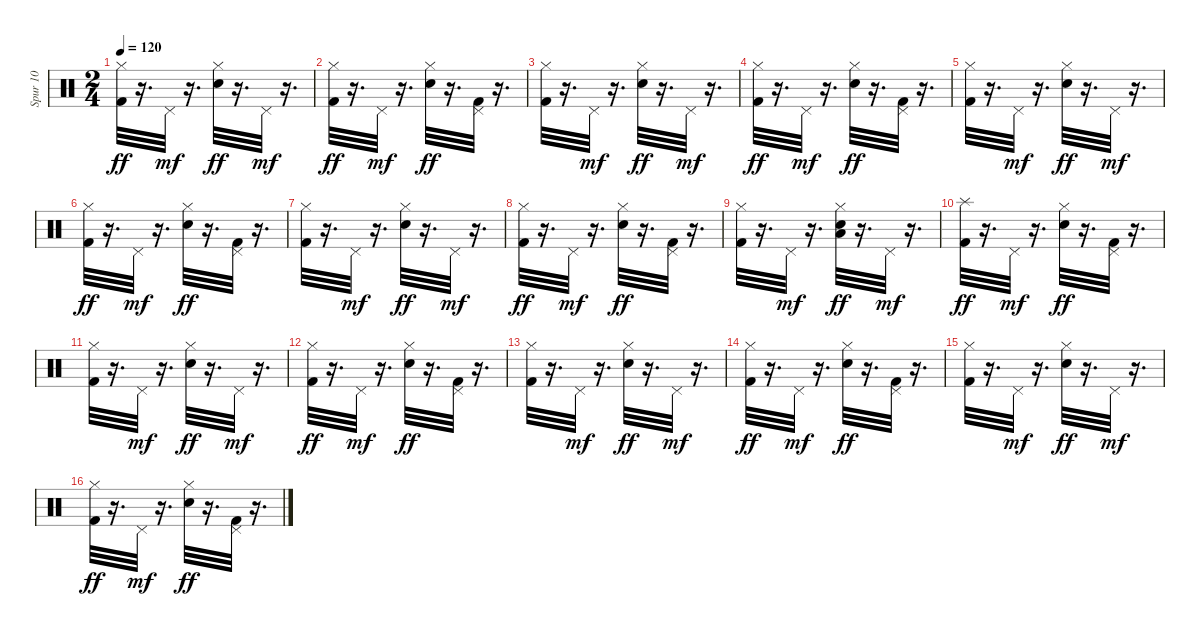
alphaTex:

\track ("Spur 10" "Spur 10") {instrument percussion}
\staff {score}
\articulation defaults
\ts (2 4)
\tempo 120
\clef neutral
\ks c
("Hi-Hat (closed)" "Kick (hit) 2").32{dy ff} r.16{d} "Pedal Hi-Hat (hit)".32{dy mf} r.16{d} ("Hi-Hat (closed)" "Snare (hit) 2").32{dy ff} r.16{d} "Pedal Hi-Hat (hit)".32{dy mf} r.16{d} |
("Hi-Hat (closed)" "Kick (hit) 2").32{dy ff} r.16{d} "Pedal Hi-Hat (hit)".32{dy mf} r.16{d} ("Hi-Hat (closed)" "Snare (hit) 2").32{dy ff} r.16{d} ("Pedal Hi-Hat (hit)" "Kick (hit) 2").32 r.16{d} |
("Hi-Hat (closed)" "Kick (hit) 2").32 r.16{d} "Pedal Hi-Hat (hit)".32{dy mf} r.16{d} ("Hi-Hat (closed)" "Snare (hit) 2").32{dy ff} r.16{d} "Pedal Hi-Hat (hit)".32{dy mf} r.16{d} |
("Hi-Hat (closed)" "Kick (hit) 2").32{dy ff} r.16{d} "Pedal Hi-Hat (hit)".32{dy mf} r.16{d} ("Hi-Hat (closed)" "Snare (hit) 2").32{dy ff} r.16{d} ("Pedal Hi-Hat (hit)" "Kick (hit) 2").32 r.16{d} |
("Hi-Hat (closed)" "Kick (hit) 2").32 r.16{d} "Pedal Hi-Hat (hit)".32{dy mf} r.16{d} ("Hi-Hat (closed)" "Snare (hit) 2").32{dy ff} r.16{d} "Pedal Hi-Hat (hit)".32{dy mf} r.16{d} |
("Hi-Hat (closed)" "Kick (hit) 2").32{dy ff} r.16{d} "Pedal Hi-Hat (hit)".32{dy mf} r.16{d} ("Hi-Hat (closed)" "Snare (hit) 2").32{dy ff} r.16{d} ("Pedal Hi-Hat (hit)" "Kick (hit) 2").32 r.16{d} |
("Hi-Hat (closed)" "Kick (hit) 2").32 r.16{d} "Pedal Hi-Hat (hit)".32{dy mf} r.16{d} ("Hi-Hat (closed)" "Snare (hit) 2").32{dy ff} r.16{d} "Pedal Hi-Hat (hit)".32{dy mf} r.16{d} |
("Hi-Hat (closed)" "Kick (hit) 2").32{dy ff} r.16{d} "Pedal Hi-Hat (hit)".32{dy mf} r.16{d} ("Hi-Hat (closed)" "Snare (hit) 2").32{dy ff} r.16{d} ("Pedal Hi-Hat (hit)" "Kick (hit) 2").32 r.16{d} |
("Hi-Hat (closed)" "Kick (hit) 2").32 r.16{d} "Pedal Hi-Hat (hit)".32{dy mf} r.16{d} ("Low Tom (hit)" "Hi-Hat (closed)" "Snare (hit) 2").32{dy ff} r.16{d} "Pedal Hi-Hat (hit)".32{dy mf} r.16{d} |
("Splash (hit)" "Kick (hit) 2").32{dy ff} r.16{d} "Pedal Hi-Hat (hit)".32{dy mf} r.16{d} ("Hi-Hat (closed)" "Snare (hit) 2").32{dy ff} r.16{d} ("Pedal Hi-Hat (hit)" "Kick (hit) 2").32 r.16{d} |
("Hi-Hat (closed)" "Kick (hit) 2").32 r.16{d} "Pedal Hi-Hat (hit)".32{dy mf} r.16{d} ("Hi-Hat (closed)" "Snare (hit) 2").32{dy ff} r.16{d} "Pedal Hi-Hat (hit)".32{dy mf} r.16{d} |
("Hi-Hat (closed)" "Kick (hit) 2").32{dy ff} r.16{d} "Pedal Hi-Hat (hit)".32{dy mf} r.16{d} ("Hi-Hat (closed)" "Snare (hit) 2").32{dy ff} r.16{d} ("Pedal Hi-Hat (hit)" "Kick (hit) 2").32 r.16{d} |
("Hi-Hat (closed)" "Kick (hit) 2").32 r.16{d} "Pedal Hi-Hat (hit)".32{dy mf} r.16{d} ("Hi-Hat (closed)" "Snare (hit) 2").32{dy ff} r.16{d} "Pedal Hi-Hat (hit)".32{dy mf} r.16{d} |
("Hi-Hat (closed)" "Kick (hit) 2").32{dy ff} r.16{d} "Pedal Hi-Hat (hit)".32{dy mf} r.16{d} ("Hi-Hat (closed)" "Snare (hit) 2").32{dy ff} r.16{d} ("Pedal Hi-Hat (hit)" "Kick (hit) 2").32 r.16{d} |
("Hi-Hat (closed)" "Kick (hit) 2").32 r.16{d} "Pedal Hi-Hat (hit)".32{dy mf} r.16{d} ("Hi-Hat (closed)" "Snare (hit) 2").32{dy ff} r.16{d} "Pedal Hi-Hat (hit)".32{dy mf} r.16{d} |
("Hi-Hat (closed)" "Kick (hit) 2").32{dy ff} r.16{d} "Pedal Hi-Hat (hit)".32{dy mf} r.16{d} ("Hi-Hat (closed)" "Snare (hit) 2").32{dy ff} r.16{d} ("Pedal Hi-Hat (hit)" "Kick (hit) 2").32 r.16{d}
